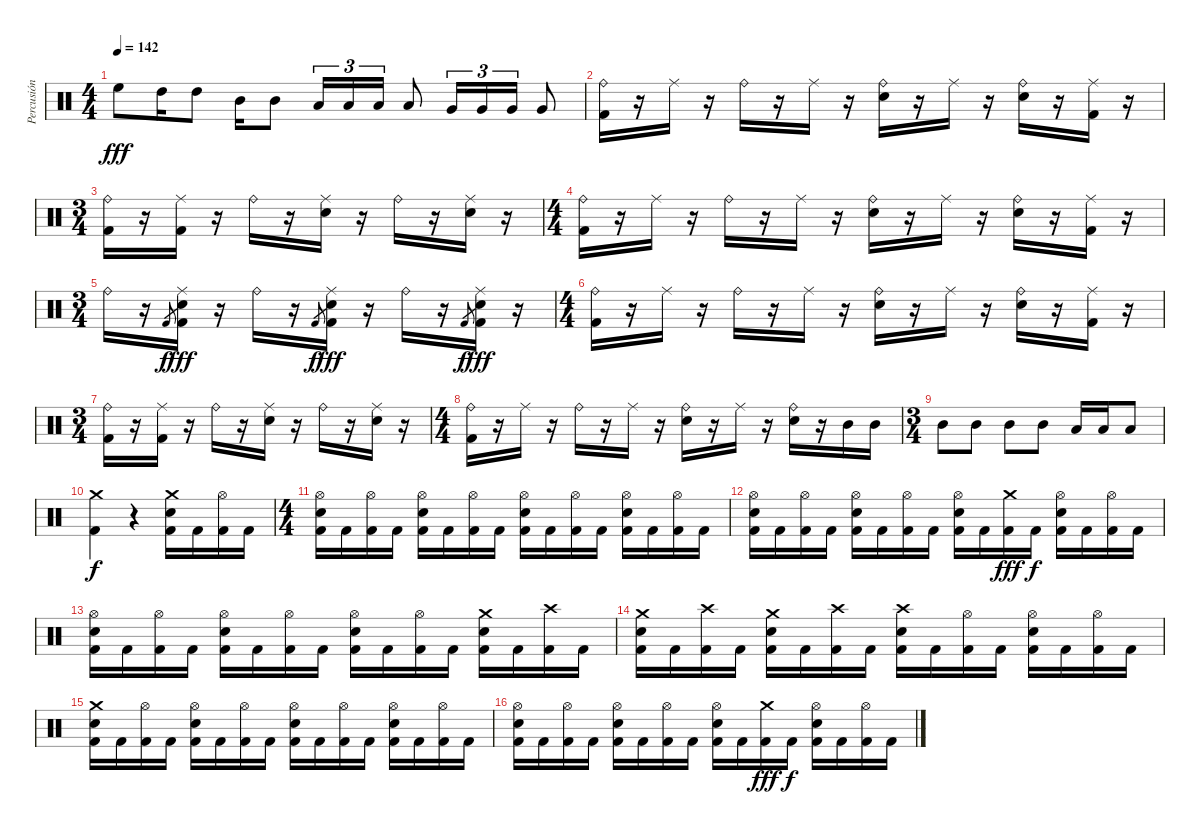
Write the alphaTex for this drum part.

\track ("Percusión" "Percusión") {instrument percussion}
\staff {score}
\articulation defaults
\ts (4 4)
\tempo 142
\clef neutral
\ks c "High Floor Tom (hit)".8{dy fff} "High Tom (hit)".16 "High Tom (hit)".8 "Mid Tom (hit)".16 "Mid Tom (hit)".8 "Low Tom (hit)".16{tu (3 2)} "Low Tom (hit)".16{tu (3 2)} "Low Tom (hit)".16{tu (3 2)} "Low Tom (hit)".8 "Very Low Tom (hit)".16{tu (3 2)} "Very Low Tom (hit)".16{tu (3 2)} "Very Low Tom (hit)".16{tu (3 2)} "Very Low Tom (hit)".8
|
("Ride (bell)" "Kick (hit) 2").16 r.16 "Ride (middle)".16 r.16 "Ride (bell)".16 r.16 "Ride (middle)".16 r.16 ("Ride (bell)" "Electric Snare (hit)").16 r.16 "Ride (middle)".16 r.16 ("Ride (bell)" "Electric Snare (hit)").16 r.16 ("Ride (middle)" "Kick (hit) 2").16 r.16 |
\ts (3 4)
("Ride (bell)" "Kick (hit) 2").16 r.16 ("Ride (middle)" "Kick (hit) 2").16 r.16 "Ride (bell)".16 r.16 ("Ride (middle)" "Electric Snare (hit)").16 r.16 "Ride (bell)".16 r.16 ("Ride (middle)" "Electric Snare (hit)").16 r.16 |
\ts (4 4)
("Ride (bell)" "Kick (hit) 2").16 r.16 "Ride (middle)".16 r.16 "Ride (bell)".16 r.16 "Ride (middle)".16 r.16 ("Ride (bell)" "Electric Snare (hit)").16 r.16 "Ride (middle)".16 r.16 ("Ride (bell)" "Electric Snare (hit)").16 r.16 ("Ride (middle)" "Kick (hit) 2").16 r.16 |
\ts (3 4)
"Ride (bell)".16 r.16 "Kick (hit) 2".8{gr dy f} ("Ride (middle)" "Electric Snare (hit)" "Kick (hit) 2").16{dy fff} r.16 "Ride (bell)".16 r.16 "Kick (hit) 2".8{gr dy f} ("Ride (middle)" "Electric Snare (hit)" "Kick (hit) 2").16{dy fff} r.16 "Ride (bell)".16 r.16 "Kick (hit) 2".8{gr dy f} ("Ride (middle)" "Electric Snare (hit)" "Kick (hit) 2").16{dy fff} r.16 |
\ts (4 4)
("Ride (bell)" "Kick (hit) 2").16 r.16 "Ride (middle)".16 r.16 "Ride (bell)".16 r.16 "Ride (middle)".16 r.16 ("Ride (bell)" "Electric Snare (hit)").16 r.16 "Ride (middle)".16 r.16 ("Ride (bell)" "Electric Snare (hit)").16 r.16 ("Ride (middle)" "Kick (hit) 2").16 r.16 |
\ts (3 4)
("Ride (bell)" "Kick (hit) 2").16 r.16 ("Ride (middle)" "Kick (hit) 2").16 r.16 "Ride (bell)".16 r.16 ("Ride (middle)" "Electric Snare (hit)").16 r.16 "Ride (bell)".16 r.16 ("Ride (middle)" "Electric Snare (hit)").16 r.16 |
\ts (4 4)
("Ride (bell)" "Kick (hit) 2").16 r.16 "Ride (middle)".16 r.16 "Ride (bell)".16 r.16 "Ride (middle)".16 r.16 ("Ride (bell)" "Electric Snare (hit)").16 r.16 "Ride (middle)".16 r.16 ("Ride (bell)" "Electric Snare (hit)").16 r.16 "Mid Tom (hit)".16 "Mid Tom (hit)".16 |
\ts (3 4)
"Mid Tom (hit)".8 "Mid Tom (hit)".8 "Mid Tom (hit)".8 "Mid Tom (hit)".8 "Low Tom (hit)".16 "Low Tom (hit)".16 "Low Tom (hit)".8 |
("Crash medium (hit)" "Kick (hit) 2").4{dy f} r.4 ("Crash medium (hit)" "Electric Snare (hit)" "Kick (hit) 2").16 "Kick (hit) 2".16 ("Hi-Hat (open)" "Kick (hit) 2").16 "Kick (hit) 2".16 |
\ts (4 4)
("Hi-Hat (open)" "Electric Snare (hit)" "Kick (hit) 2").16 "Kick (hit) 2".16 ("Hi-Hat (open)" "Kick (hit) 2").16 "Kick (hit) 2".16 ("Hi-Hat (open)" "Electric Snare (hit)" "Kick (hit) 2").16 "Kick (hit) 2".16 ("Hi-Hat (open)" "Kick (hit) 2").16 "Kick (hit) 2".16 ("Hi-Hat (open)" "Electric Snare (hit)" "Kick (hit) 2").16 "Kick (hit) 2".16 ("Hi-Hat (open)" "Kick (hit) 2").16 "Kick (hit) 2".16 ("Hi-Hat (open)" "Electric Snare (hit)" "Kick (hit) 2").16 "Kick (hit) 2".16 ("Hi-Hat (open)" "Kick (hit) 2").16 "Kick (hit) 2".16 |
("Hi-Hat (open)" "Electric Snare (hit)" "Kick (hit) 2").16 "Kick (hit) 2".16 ("Hi-Hat (open)" "Kick (hit) 2").16 "Kick (hit) 2".16 ("Hi-Hat (open)" "Electric Snare (hit)" "Kick (hit) 2").16 "Kick (hit) 2".16 ("Hi-Hat (open)" "Kick (hit) 2").16 "Kick (hit) 2".16 ("Hi-Hat (open)" "Electric Snare (hit)" "Kick (hit) 2").16 "Kick (hit) 2".16 ("Crash medium (hit)" "Kick (hit) 2").16{dy fff} "Kick (hit) 2".16{dy f} ("Hi-Hat (open)" "Electric Snare (hit)" "Kick (hit) 2").16 "Kick (hit) 2".16 ("Hi-Hat (open)" "Kick (hit) 2").16 "Kick (hit) 2".16 |
("Hi-Hat (open)" "Electric Snare (hit)" "Kick (hit) 2").16 "Kick (hit) 2".16 ("Hi-Hat (open)" "Kick (hit) 2").16 "Kick (hit) 2".16 ("Hi-Hat (open)" "Electric Snare (hit)" "Kick (hit) 2").16 "Kick (hit) 2".16 ("Hi-Hat (open)" "Kick (hit) 2").16 "Kick (hit) 2".16 ("Hi-Hat (open)" "Electric Snare (hit)" "Kick (hit) 2").16 "Kick (hit) 2".16 ("Hi-Hat (open)" "Kick (hit) 2").16 "Kick (hit) 2".16 ("Crash medium (hit)" "Electric Snare (hit)" "Kick (hit) 2").16 "Kick (hit) 2".16 ("Crash high (hit)" "Kick (hit) 2").16 "Kick (hit) 2".16 |
("Crash medium (hit)" "Electric Snare (hit)" "Kick (hit) 2").16 "Kick (hit) 2".16 ("Crash high (hit)" "Kick (hit) 2").16 "Kick (hit) 2".16 ("Crash medium (hit)" "Electric Snare (hit)" "Kick (hit) 2").16 "Kick (hit) 2".16 ("Crash high (hit)" "Kick (hit) 2").16 "Kick (hit) 2".16 ("Crash high (hit)" "Electric Snare (hit)" "Kick (hit) 2").16 "Kick (hit) 2".16 ("Hi-Hat (open)" "Kick (hit) 2").16 "Kick (hit) 2".16 ("Hi-Hat (open)" "Electric Snare (hit)" "Kick (hit) 2").16 "Kick (hit) 2".16 ("Hi-Hat (open)" "Kick (hit) 2").16 "Kick (hit) 2".16 |
("Crash medium (hit)" "Electric Snare (hit)" "Kick (hit) 2").16 "Kick (hit) 2".16 ("Hi-Hat (open)" "Kick (hit) 2").16 "Kick (hit) 2".16 ("Hi-Hat (open)" "Electric Snare (hit)" "Kick (hit) 2").16 "Kick (hit) 2".16 ("Hi-Hat (open)" "Kick (hit) 2").16 "Kick (hit) 2".16 ("Hi-Hat (open)" "Electric Snare (hit)" "Kick (hit) 2").16 "Kick (hit) 2".16 ("Hi-Hat (open)" "Kick (hit) 2").16 "Kick (hit) 2".16 ("Hi-Hat (open)" "Electric Snare (hit)" "Kick (hit) 2").16 "Kick (hit) 2".16 ("Hi-Hat (open)" "Kick (hit) 2").16 "Kick (hit) 2".16 |
("Hi-Hat (open)" "Electric Snare (hit)" "Kick (hit) 2").16 "Kick (hit) 2".16 ("Hi-Hat (open)" "Kick (hit) 2").16 "Kick (hit) 2".16 ("Hi-Hat (open)" "Electric Snare (hit)" "Kick (hit) 2").16 "Kick (hit) 2".16 ("Hi-Hat (open)" "Kick (hit) 2").16 "Kick (hit) 2".16 ("Hi-Hat (open)" "Electric Snare (hit)" "Kick (hit) 2").16 "Kick (hit) 2".16 ("Crash medium (hit)" "Kick (hit) 2").16{dy fff} "Kick (hit) 2".16{dy f} ("Hi-Hat (open)" "Electric Snare (hit)" "Kick (hit) 2").16 "Kick (hit) 2".16 ("Hi-Hat (open)" "Kick (hit) 2").16 "Kick (hit) 2".16
